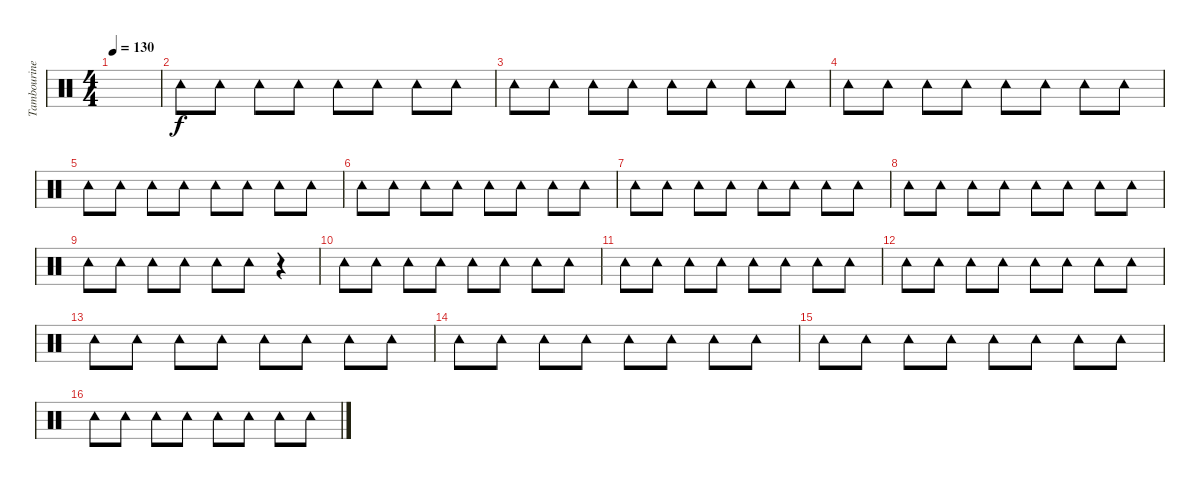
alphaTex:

\track ("Tambourine" "Tambourine") {instrument percussion}
\staff {score}
\articulation defaults
\ts (4 4)
\tempo 130
\clef neutral
\ks c
|
"Tambourine (hit)".8 "Tambourine (hit)".8 "Tambourine (hit)".8 "Tambourine (hit)".8 "Tambourine (hit)".8 "Tambourine (hit)".8 "Tambourine (hit)".8 "Tambourine (hit)".8 |
"Tambourine (hit)".8 "Tambourine (hit)".8 "Tambourine (hit)".8 "Tambourine (hit)".8 "Tambourine (hit)".8 "Tambourine (hit)".8 "Tambourine (hit)".8 "Tambourine (hit)".8 |
"Tambourine (hit)".8 "Tambourine (hit)".8 "Tambourine (hit)".8 "Tambourine (hit)".8 "Tambourine (hit)".8 "Tambourine (hit)".8 "Tambourine (hit)".8 "Tambourine (hit)".8 |
"Tambourine (hit)".8 "Tambourine (hit)".8 "Tambourine (hit)".8 "Tambourine (hit)".8 "Tambourine (hit)".8 "Tambourine (hit)".8 "Tambourine (hit)".8 "Tambourine (hit)".8 |
"Tambourine (hit)".8 "Tambourine (hit)".8 "Tambourine (hit)".8 "Tambourine (hit)".8 "Tambourine (hit)".8 "Tambourine (hit)".8 "Tambourine (hit)".8 "Tambourine (hit)".8 |
"Tambourine (hit)".8 "Tambourine (hit)".8 "Tambourine (hit)".8 "Tambourine (hit)".8 "Tambourine (hit)".8 "Tambourine (hit)".8 "Tambourine (hit)".8 "Tambourine (hit)".8 |
"Tambourine (hit)".8 "Tambourine (hit)".8 "Tambourine (hit)".8 "Tambourine (hit)".8 "Tambourine (hit)".8 "Tambourine (hit)".8 "Tambourine (hit)".8 "Tambourine (hit)".8 |
"Tambourine (hit)".8 "Tambourine (hit)".8 "Tambourine (hit)".8 "Tambourine (hit)".8 "Tambourine (hit)".8 "Tambourine (hit)".8 r.4 |
"Tambourine (hit)".8 "Tambourine (hit)".8 "Tambourine (hit)".8 "Tambourine (hit)".8 "Tambourine (hit)".8 "Tambourine (hit)".8 "Tambourine (hit)".8 "Tambourine (hit)".8 |
"Tambourine (hit)".8 "Tambourine (hit)".8 "Tambourine (hit)".8 "Tambourine (hit)".8 "Tambourine (hit)".8 "Tambourine (hit)".8 "Tambourine (hit)".8 "Tambourine (hit)".8 |
"Tambourine (hit)".8 "Tambourine (hit)".8 "Tambourine (hit)".8 "Tambourine (hit)".8 "Tambourine (hit)".8 "Tambourine (hit)".8 "Tambourine (hit)".8 "Tambourine (hit)".8 |
"Tambourine (hit)".8 "Tambourine (hit)".8 "Tambourine (hit)".8 "Tambourine (hit)".8 "Tambourine (hit)".8 "Tambourine (hit)".8 "Tambourine (hit)".8 "Tambourine (hit)".8 |
"Tambourine (hit)".8 "Tambourine (hit)".8 "Tambourine (hit)".8 "Tambourine (hit)".8 "Tambourine (hit)".8 "Tambourine (hit)".8 "Tambourine (hit)".8 "Tambourine (hit)".8 |
"Tambourine (hit)".8 "Tambourine (hit)".8 "Tambourine (hit)".8 "Tambourine (hit)".8 "Tambourine (hit)".8 "Tambourine (hit)".8 "Tambourine (hit)".8 "Tambourine (hit)".8 |
"Tambourine (hit)".8 "Tambourine (hit)".8 "Tambourine (hit)".8 "Tambourine (hit)".8 "Tambourine (hit)".8 "Tambourine (hit)".8 "Tambourine (hit)".8 "Tambourine (hit)".8
